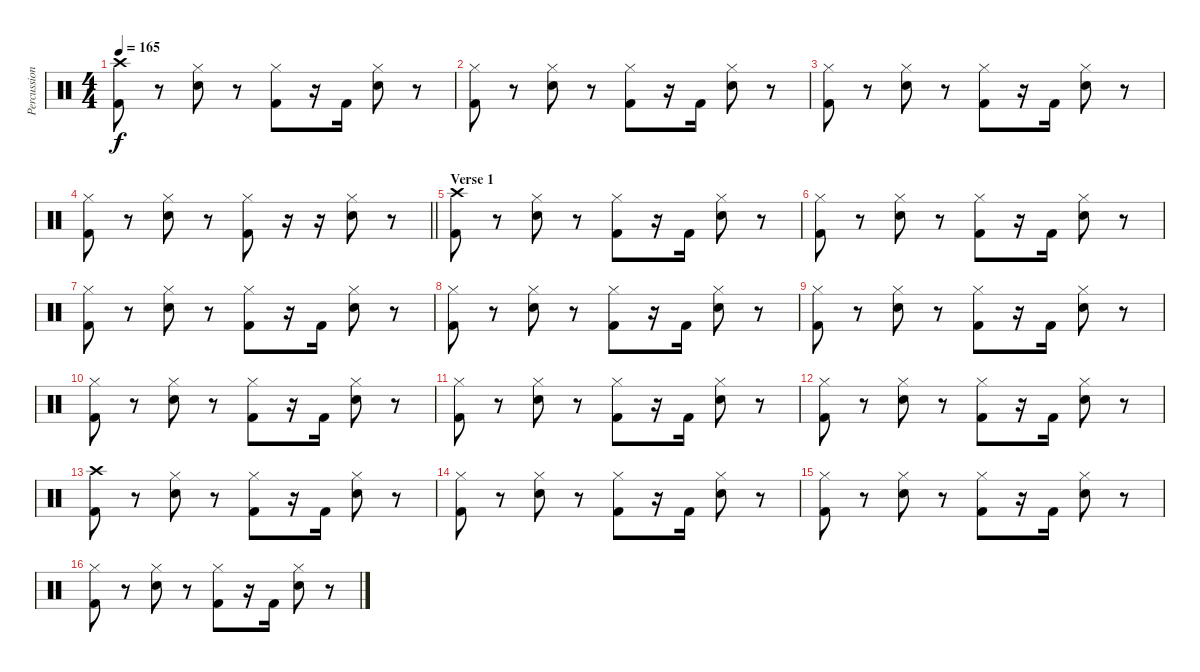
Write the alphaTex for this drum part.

\track ("Percussion" "Percussion") {instrument percussion}
\staff {score}
\articulation defaults
\ts (4 4)
\tempo 165
\clef neutral
\ks c
("Crash high (hit)" "Kick (hit) 2").8{dy f} r.8 ("Hi-Hat (closed)" "Snare (hit) 2").8 r.8 ("Hi-Hat (closed)" "Kick (hit) 2").8 r.16 "Kick (hit) 2".16 ("Hi-Hat (closed)" "Snare (hit) 2").8 r.8 |
("Hi-Hat (closed)" "Kick (hit) 2").8 r.8 ("Hi-Hat (closed)" "Snare (hit) 2").8 r.8 ("Hi-Hat (closed)" "Kick (hit) 2").8 r.16 "Kick (hit) 2".16 ("Hi-Hat (closed)" "Snare (hit) 2").8 r.8 |
("Hi-Hat (closed)" "Kick (hit) 2").8 r.8 ("Hi-Hat (closed)" "Snare (hit) 2").8 r.8 ("Hi-Hat (closed)" "Kick (hit) 2").8 r.16 "Kick (hit) 2".16 ("Hi-Hat (closed)" "Snare (hit) 2").8 r.8 |
\barLineRight lightlight
("Hi-Hat (closed)" "Kick (hit) 2").8 r.8 ("Hi-Hat (closed)" "Snare (hit) 2").8 r.8 ("Hi-Hat (closed)" "Kick (hit) 2").8 r.16 r.16 ("Hi-Hat (closed)" "Snare (hit) 2").8 r.8 |
\section ("" "Verse 1")
("Crash high (hit)" "Kick (hit) 2").8 r.8 ("Hi-Hat (closed)" "Snare (hit) 2").8 r.8 ("Hi-Hat (closed)" "Kick (hit) 2").8 r.16 "Kick (hit) 2".16 ("Hi-Hat (closed)" "Snare (hit) 2").8 r.8 |
("Hi-Hat (closed)" "Kick (hit) 2").8 r.8 ("Hi-Hat (closed)" "Snare (hit) 2").8 r.8 ("Hi-Hat (closed)" "Kick (hit) 2").8 r.16 "Kick (hit) 2".16 ("Hi-Hat (closed)" "Snare (hit) 2").8 r.8 |
("Hi-Hat (closed)" "Kick (hit) 2").8 r.8 ("Hi-Hat (closed)" "Snare (hit) 2").8 r.8 ("Hi-Hat (closed)" "Kick (hit) 2").8 r.16 "Kick (hit) 2".16 ("Hi-Hat (closed)" "Snare (hit) 2").8 r.8 |
("Hi-Hat (closed)" "Kick (hit) 2").8 r.8 ("Hi-Hat (closed)" "Snare (hit) 2").8 r.8 ("Hi-Hat (closed)" "Kick (hit) 2").8 r.16 "Kick (hit) 2".16 ("Hi-Hat (closed)" "Snare (hit) 2").8 r.8 |
("Hi-Hat (closed)" "Kick (hit) 2").8 r.8 ("Hi-Hat (closed)" "Snare (hit) 2").8 r.8 ("Hi-Hat (closed)" "Kick (hit) 2").8 r.16 "Kick (hit) 2".16 ("Hi-Hat (closed)" "Snare (hit) 2").8 r.8 |
("Hi-Hat (closed)" "Kick (hit) 2").8 r.8 ("Hi-Hat (closed)" "Snare (hit) 2").8 r.8 ("Hi-Hat (closed)" "Kick (hit) 2").8 r.16 "Kick (hit) 2".16 ("Hi-Hat (closed)" "Snare (hit) 2").8 r.8 |
("Hi-Hat (closed)" "Kick (hit) 2").8 r.8 ("Hi-Hat (closed)" "Snare (hit) 2").8 r.8 ("Hi-Hat (closed)" "Kick (hit) 2").8 r.16 "Kick (hit) 2".16 ("Hi-Hat (closed)" "Snare (hit) 2").8 r.8 |
("Hi-Hat (closed)" "Kick (hit) 2").8 r.8 ("Hi-Hat (closed)" "Snare (hit) 2").8 r.8 ("Hi-Hat (closed)" "Kick (hit) 2").8 r.16 "Kick (hit) 2".16 ("Hi-Hat (closed)" "Snare (hit) 2").8 r.8 |
("Crash high (hit)" "Kick (hit) 2").8 r.8 ("Hi-Hat (closed)" "Snare (hit) 2").8 r.8 ("Hi-Hat (closed)" "Kick (hit) 2").8 r.16 "Kick (hit) 2".16 ("Hi-Hat (closed)" "Snare (hit) 2").8 r.8 |
("Hi-Hat (closed)" "Kick (hit) 2").8 r.8 ("Hi-Hat (closed)" "Snare (hit) 2").8 r.8 ("Hi-Hat (closed)" "Kick (hit) 2").8 r.16 "Kick (hit) 2".16 ("Hi-Hat (closed)" "Snare (hit) 2").8 r.8 |
("Hi-Hat (closed)" "Kick (hit) 2").8 r.8 ("Hi-Hat (closed)" "Snare (hit) 2").8 r.8 ("Hi-Hat (closed)" "Kick (hit) 2").8 r.16 "Kick (hit) 2".16 ("Hi-Hat (closed)" "Snare (hit) 2").8 r.8 |
("Hi-Hat (closed)" "Kick (hit) 2").8 r.8 ("Hi-Hat (closed)" "Snare (hit) 2").8 r.8 ("Hi-Hat (closed)" "Kick (hit) 2").8 r.16 "Kick (hit) 2".16 ("Hi-Hat (closed)" "Snare (hit) 2").8 r.8
